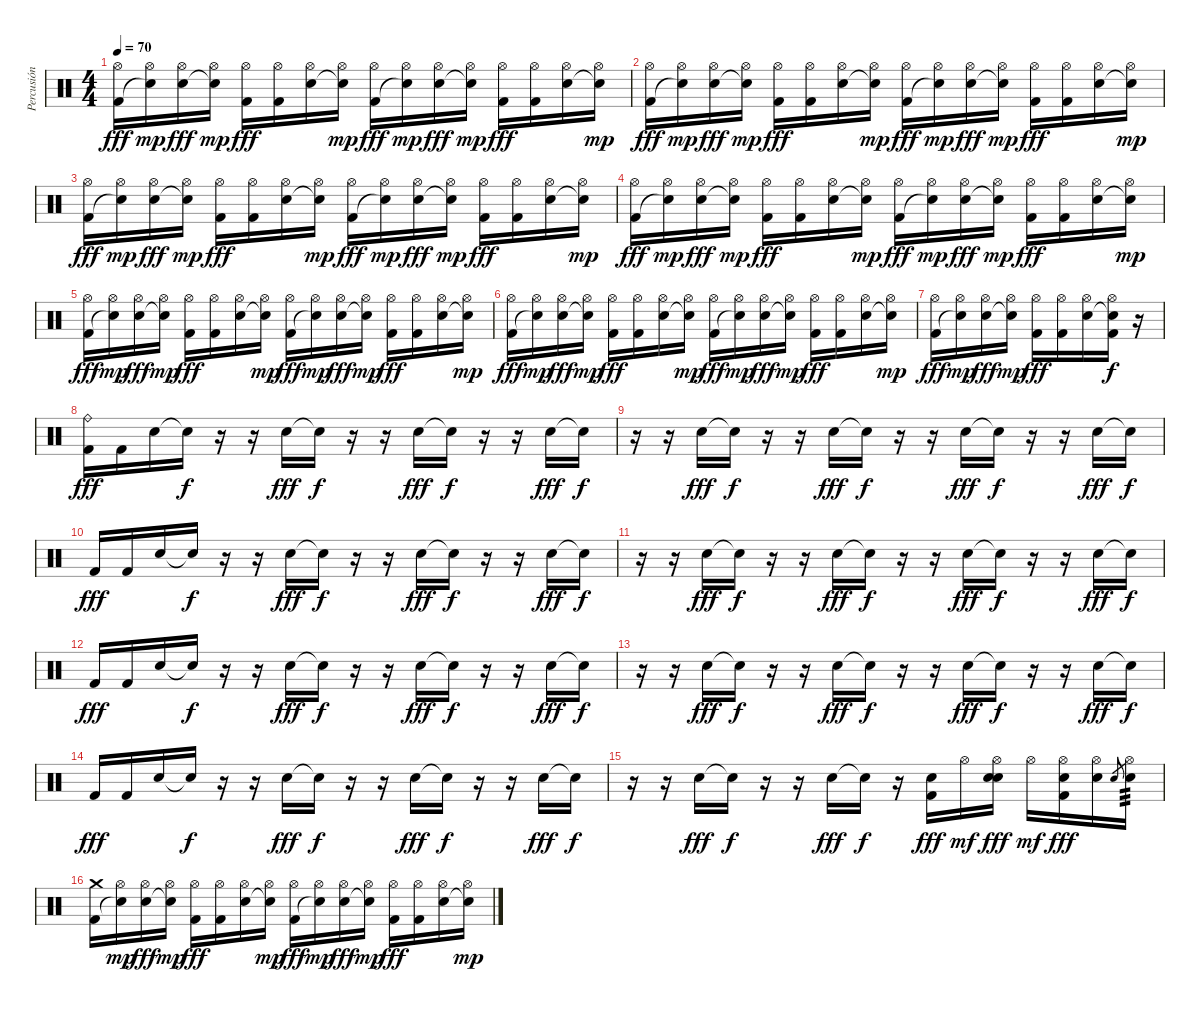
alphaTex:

\track ("Percusión" "Percusión") {instrument percussion}
\staff {score}
\articulation defaults
\ts (4 4)
\tempo 70
\clef neutral
\ks c
("Hi-Hat (open)" "Kick (hit) 2").16{dy fff} ("Hi-Hat (open)" "Snare (hit)"{t}).16{dy mp} ("Hi-Hat (open)" "Electric Snare (hit)").16{dy fff} ("Hi-Hat (open)" "Snare (hit)"{t}).16{dy mp} ("Hi-Hat (open)" "Kick (hit) 2").16{dy fff} ("Hi-Hat (open)" "Kick (hit) 2").16 ("Hi-Hat (open)" "Electric Snare (hit)").16 ("Hi-Hat (open)" "Snare (hit)"{t}).16{dy mp} ("Hi-Hat (open)" "Kick (hit) 2").16{dy fff} ("Hi-Hat (open)" "Snare (hit)"{t}).16{dy mp} ("Hi-Hat (open)" "Electric Snare (hit)").16{dy fff} ("Hi-Hat (open)" "Snare (hit)"{t}).16{dy mp} ("Hi-Hat (open)" "Kick (hit) 2").16{dy fff} ("Hi-Hat (open)" "Kick (hit) 2").16 ("Hi-Hat (open)" "Electric Snare (hit)").16 ("Hi-Hat (open)" "Snare (hit)"{t}).16{dy mp} |
("Hi-Hat (open)" "Kick (hit) 2").16{dy fff} ("Hi-Hat (open)" "Snare (hit)"{t}).16{dy mp} ("Hi-Hat (open)" "Electric Snare (hit)").16{dy fff} ("Hi-Hat (open)" "Snare (hit)"{t}).16{dy mp} ("Hi-Hat (open)" "Kick (hit) 2").16{dy fff} ("Hi-Hat (open)" "Kick (hit) 2").16 ("Hi-Hat (open)" "Electric Snare (hit)").16 ("Hi-Hat (open)" "Snare (hit)"{t}).16{dy mp} ("Hi-Hat (open)" "Kick (hit) 2").16{dy fff} ("Hi-Hat (open)" "Snare (hit)"{t}).16{dy mp} ("Hi-Hat (open)" "Electric Snare (hit)").16{dy fff} ("Hi-Hat (open)" "Snare (hit)"{t}).16{dy mp} ("Hi-Hat (open)" "Kick (hit) 2").16{dy fff} ("Hi-Hat (open)" "Kick (hit) 2").16 ("Hi-Hat (open)" "Electric Snare (hit)").16 ("Hi-Hat (open)" "Snare (hit)"{t}).16{dy mp} |
("Hi-Hat (open)" "Kick (hit) 2").16{dy fff} ("Hi-Hat (open)" "Snare (hit)"{t}).16{dy mp} ("Hi-Hat (open)" "Electric Snare (hit)").16{dy fff} ("Hi-Hat (open)" "Snare (hit)"{t}).16{dy mp} ("Hi-Hat (open)" "Kick (hit) 2").16{dy fff} ("Hi-Hat (open)" "Kick (hit) 2").16 ("Hi-Hat (open)" "Electric Snare (hit)").16 ("Hi-Hat (open)" "Snare (hit)"{t}).16{dy mp} ("Hi-Hat (open)" "Kick (hit) 2").16{dy fff} ("Hi-Hat (open)" "Snare (hit)"{t}).16{dy mp} ("Hi-Hat (open)" "Electric Snare (hit)").16{dy fff} ("Hi-Hat (open)" "Snare (hit)"{t}).16{dy mp} ("Hi-Hat (open)" "Kick (hit) 2").16{dy fff} ("Hi-Hat (open)" "Kick (hit) 2").16 ("Hi-Hat (open)" "Electric Snare (hit)").16 ("Hi-Hat (open)" "Snare (hit)"{t}).16{dy mp} |
("Hi-Hat (open)" "Kick (hit) 2").16{dy fff} ("Hi-Hat (open)" "Snare (hit)"{t}).16{dy mp} ("Hi-Hat (open)" "Electric Snare (hit)").16{dy fff} ("Hi-Hat (open)" "Snare (hit)"{t}).16{dy mp} ("Hi-Hat (open)" "Kick (hit) 2").16{dy fff} ("Hi-Hat (open)" "Kick (hit) 2").16 ("Hi-Hat (open)" "Electric Snare (hit)").16 ("Hi-Hat (open)" "Snare (hit)"{t}).16{dy mp} ("Hi-Hat (open)" "Kick (hit) 2").16{dy fff} ("Hi-Hat (open)" "Snare (hit)"{t}).16{dy mp} ("Hi-Hat (open)" "Electric Snare (hit)").16{dy fff} ("Hi-Hat (open)" "Snare (hit)"{t}).16{dy mp} ("Hi-Hat (open)" "Kick (hit) 2").16{dy fff} ("Hi-Hat (open)" "Kick (hit) 2").16 ("Hi-Hat (open)" "Electric Snare (hit)").16 ("Hi-Hat (open)" "Snare (hit)"{t}).16{dy mp} |
("Hi-Hat (open)" "Kick (hit) 2").16{dy fff} ("Hi-Hat (open)" "Snare (hit)"{t}).16{dy mp} ("Hi-Hat (open)" "Electric Snare (hit)").16{dy fff} ("Hi-Hat (open)" "Snare (hit)"{t}).16{dy mp} ("Hi-Hat (open)" "Kick (hit) 2").16{dy fff} ("Hi-Hat (open)" "Kick (hit) 2").16 ("Hi-Hat (open)" "Electric Snare (hit)").16 ("Hi-Hat (open)" "Snare (hit)"{t}).16{dy mp} ("Hi-Hat (open)" "Kick (hit) 2").16{dy fff} ("Hi-Hat (open)" "Snare (hit)"{t}).16{dy mp} ("Hi-Hat (open)" "Electric Snare (hit)").16{dy fff} ("Hi-Hat (open)" "Snare (hit)"{t}).16{dy mp} ("Hi-Hat (open)" "Kick (hit) 2").16{dy fff} ("Hi-Hat (open)" "Kick (hit) 2").16 ("Hi-Hat (open)" "Electric Snare (hit)").16 ("Hi-Hat (open)" "Snare (hit)"{t}).16{dy mp} |
("Hi-Hat (open)" "Kick (hit) 2").16{dy fff} ("Hi-Hat (open)" "Snare (hit)"{t}).16{dy mp} ("Hi-Hat (open)" "Electric Snare (hit)").16{dy fff} ("Hi-Hat (open)" "Snare (hit)"{t}).16{dy mp} ("Hi-Hat (open)" "Kick (hit) 2").16{dy fff} ("Hi-Hat (open)" "Kick (hit) 2").16 ("Hi-Hat (open)" "Electric Snare (hit)").16 ("Hi-Hat (open)" "Snare (hit)"{t}).16{dy mp} ("Hi-Hat (open)" "Kick (hit) 2").16{dy fff} ("Hi-Hat (open)" "Snare (hit)"{t}).16{dy mp} ("Hi-Hat (open)" "Electric Snare (hit)").16{dy fff} ("Hi-Hat (open)" "Snare (hit)"{t}).16{dy mp} ("Hi-Hat (open)" "Kick (hit) 2").16{dy fff} ("Hi-Hat (open)" "Kick (hit) 2").16 ("Hi-Hat (open)" "Electric Snare (hit)").16 ("Hi-Hat (open)" "Snare (hit)"{t}).16{dy mp} |
("Hi-Hat (open)" "Kick (hit) 2").16{dy fff} ("Hi-Hat (open)" "Snare (hit)"{t}).16{dy mp} ("Hi-Hat (open)" "Electric Snare (hit)").16{dy fff} ("Hi-Hat (open)" "Snare (hit)"{t}).16{dy mp} ("Hi-Hat (open)" "Kick (hit) 2").16{dy fff} ("Hi-Hat (open)" "Kick (hit) 2").16 ("Hi-Hat (open)" "Electric Snare (hit)").16 ("Hi-Hat (open)" "Snare (hit)"{t} "Kick (hit) 2").16{dy f} r.16 |
("Ride (bell)" "Kick (hit) 2").16{dy fff} "Kick (hit) 2".16 "Electric Snare (hit)".16 "Snare (hit)"{t}.16{dy f} r.16 r.16 "Electric Snare (hit)".16{dy fff} "Snare (hit)"{t}.16{dy f} r.16 r.16 "Electric Snare (hit)".16{dy fff} "Snare (hit)"{t}.16{dy f} r.16 r.16 "Electric Snare (hit)".16{dy fff} "Snare (hit)"{t}.16{dy f} |
r.16 r.16 "Electric Snare (hit)".16{dy fff} "Snare (hit)"{t}.16{dy f} r.16 r.16 "Electric Snare (hit)".16{dy fff} "Snare (hit)"{t}.16{dy f} r.16 r.16 "Electric Snare (hit)".16{dy fff} "Snare (hit)"{t}.16{dy f} r.16 r.16 "Electric Snare (hit)".16{dy fff} "Snare (hit)"{t}.16{dy f} |
"Kick (hit) 2".16{dy fff} "Kick (hit) 2".16 "Electric Snare (hit)".16 "Snare (hit)"{t}.16{dy f} r.16 r.16 "Electric Snare (hit)".16{dy fff} "Snare (hit)"{t}.16{dy f} r.16 r.16 "Electric Snare (hit)".16{dy fff} "Snare (hit)"{t}.16{dy f} r.16 r.16 "Electric Snare (hit)".16{dy fff} "Snare (hit)"{t}.16{dy f} |
r.16 r.16 "Electric Snare (hit)".16{dy fff} "Snare (hit)"{t}.16{dy f} r.16 r.16 "Electric Snare (hit)".16{dy fff} "Snare (hit)"{t}.16{dy f} r.16 r.16 "Electric Snare (hit)".16{dy fff} "Snare (hit)"{t}.16{dy f} r.16 r.16 "Electric Snare (hit)".16{dy fff} "Snare (hit)"{t}.16{dy f} |
"Kick (hit) 2".16{dy fff} "Kick (hit) 2".16 "Electric Snare (hit)".16 "Snare (hit)"{t}.16{dy f} r.16 r.16 "Electric Snare (hit)".16{dy fff} "Snare (hit)"{t}.16{dy f} r.16 r.16 "Electric Snare (hit)".16{dy fff} "Snare (hit)"{t}.16{dy f} r.16 r.16 "Electric Snare (hit)".16{dy fff} "Snare (hit)"{t}.16{dy f} |
r.16 r.16 "Electric Snare (hit)".16{dy fff} "Snare (hit)"{t}.16{dy f} r.16 r.16 "Electric Snare (hit)".16{dy fff} "Snare (hit)"{t}.16{dy f} r.16 r.16 "Electric Snare (hit)".16{dy fff} "Snare (hit)"{t}.16{dy f} r.16 r.16 "Electric Snare (hit)".16{dy fff} "Snare (hit)"{t}.16{dy f} |
"Kick (hit) 2".16{dy fff} "Kick (hit) 2".16 "Electric Snare (hit)".16 "Snare (hit)"{t}.16{dy f} r.16 r.16 "Electric Snare (hit)".16{dy fff} "Snare (hit)"{t}.16{dy f} r.16 r.16 "Electric Snare (hit)".16{dy fff} "Snare (hit)"{t}.16{dy f} r.16 r.16 "Electric Snare (hit)".16{dy fff} "Snare (hit)"{t}.16{dy f} |
r.16 r.16 "Electric Snare (hit)".16{dy fff} "Snare (hit)"{t}.16{dy f} r.16 r.16 "Electric Snare (hit)".16{dy fff} "Snare (hit)"{t}.16{dy f} r.16 ("Electric Snare (hit)" "Kick (hit) 2").16{dy fff} "Hi-Hat (open)".16{dy mf} ("Hi-Hat (open)" "Electric Snare (hit)" "Snare (hit)").16{dy fff} "Hi-Hat (open)".16{dy mf} ("Hi-Hat (open)" "Electric Snare (hit)" "Kick (hit) 2").16{dy fff} ("Hi-Hat (open)" "Electric Snare (hit)").16 "Electric Snare (hit)".8{gr} ("Hi-Hat (open)" "Electric Snare (hit)").16{tp 3} |
("Crash medium (hit)" "Kick (hit) 2").16 ("Hi-Hat (open)" "Snare (hit)"{t}).16{dy mp} ("Hi-Hat (open)" "Electric Snare (hit)").16{dy fff} ("Hi-Hat (open)" "Snare (hit)"{t}).16{dy mp} ("Hi-Hat (open)" "Kick (hit) 2").16{dy fff} ("Hi-Hat (open)" "Kick (hit) 2").16 ("Hi-Hat (open)" "Electric Snare (hit)").16 ("Hi-Hat (open)" "Snare (hit)"{t}).16{dy mp} ("Hi-Hat (open)" "Kick (hit) 2").16{dy fff} ("Hi-Hat (open)" "Snare (hit)"{t}).16{dy mp} ("Hi-Hat (open)" "Electric Snare (hit)").16{dy fff} ("Hi-Hat (open)" "Snare (hit)"{t}).16{dy mp} ("Hi-Hat (open)" "Kick (hit) 2").16{dy fff} ("Hi-Hat (open)" "Kick (hit) 2").16 ("Hi-Hat (open)" "Electric Snare (hit)").16 ("Hi-Hat (open)" "Snare (hit)"{t}).16{dy mp}
